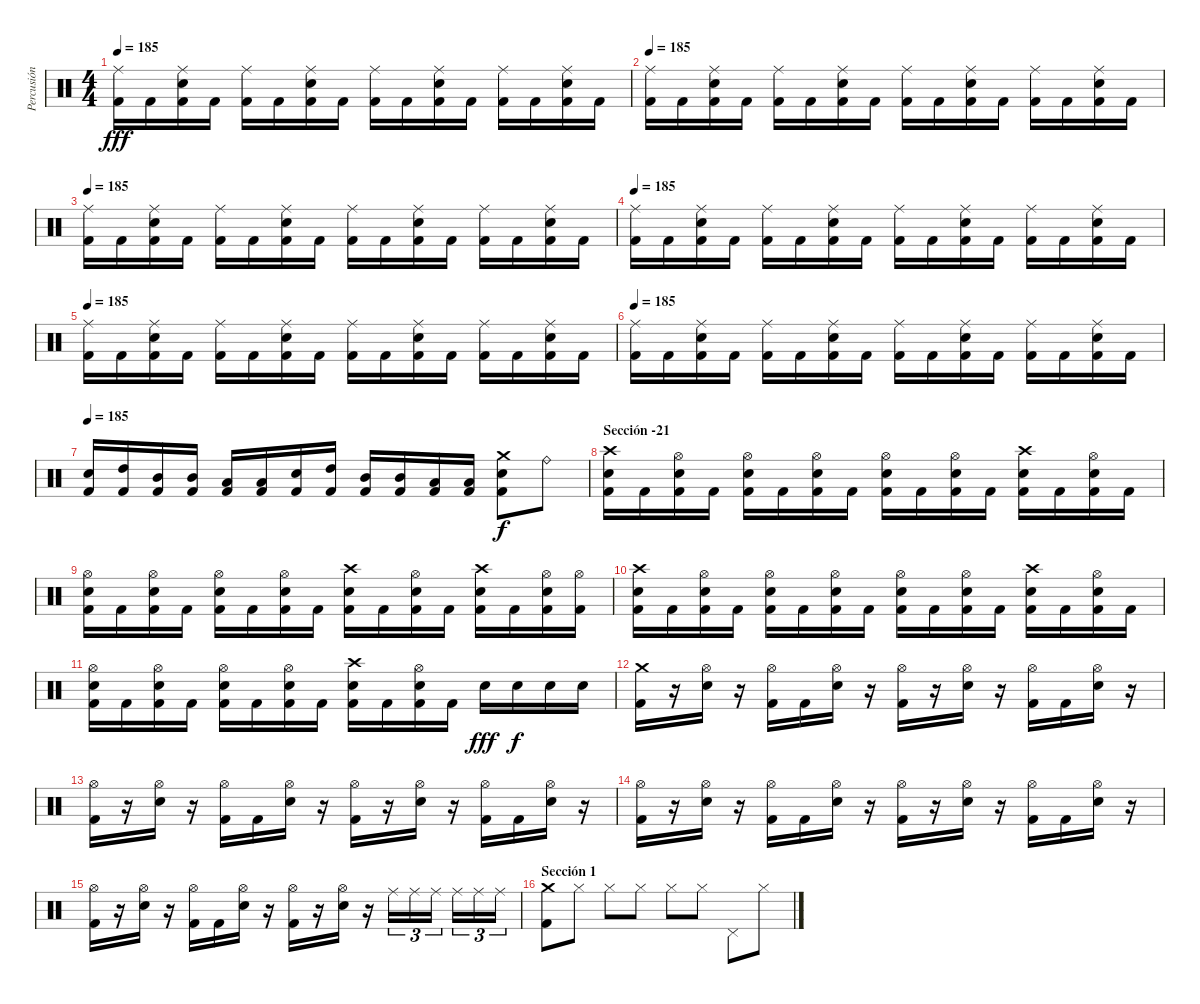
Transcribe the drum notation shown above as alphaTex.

\track ("Percusión" "Percusión") {instrument percussion}
\staff {score}
\articulation defaults
\ts (4 4)
\tempo 185
\clef neutral
\ks c
("Ride (middle)" "Kick (hit) 2").16{dy fff} "Kick (hit) 2".16 ("Ride (middle)" "Snare (hit) 2" "Kick (hit) 2").16 "Kick (hit) 2".16 ("Ride (middle)" "Kick (hit) 2").16 "Kick (hit) 2".16 ("Ride (middle)" "Snare (hit) 2" "Kick (hit) 2").16 "Kick (hit) 2".16 ("Ride (middle)" "Kick (hit) 2").16 "Kick (hit) 2".16 ("Ride (middle)" "Snare (hit) 2" "Kick (hit) 2").16 "Kick (hit) 2".16 ("Ride (middle)" "Kick (hit) 2").16 "Kick (hit) 2".16 ("Ride (middle)" "Snare (hit) 2" "Kick (hit) 2").16 "Kick (hit) 2".16 |
\tempo 185
("Ride (middle)" "Kick (hit) 2").16 "Kick (hit) 2".16 ("Ride (middle)" "Snare (hit) 2" "Kick (hit) 2").16 "Kick (hit) 2".16 ("Ride (middle)" "Kick (hit) 2").16 "Kick (hit) 2".16 ("Ride (middle)" "Snare (hit) 2" "Kick (hit) 2").16 "Kick (hit) 2".16 ("Ride (middle)" "Kick (hit) 2").16 "Kick (hit) 2".16 ("Ride (middle)" "Snare (hit) 2" "Kick (hit) 2").16 "Kick (hit) 2".16 ("Ride (middle)" "Kick (hit) 2").16 "Kick (hit) 2".16 ("Ride (middle)" "Snare (hit) 2" "Kick (hit) 2").16 "Kick (hit) 2".16 |
\tempo 185
("Ride (middle)" "Kick (hit) 2").16 "Kick (hit) 2".16 ("Ride (middle)" "Snare (hit) 2" "Kick (hit) 2").16 "Kick (hit) 2".16 ("Ride (middle)" "Kick (hit) 2").16 "Kick (hit) 2".16 ("Ride (middle)" "Snare (hit) 2" "Kick (hit) 2").16 "Kick (hit) 2".16 ("Ride (middle)" "Kick (hit) 2").16 "Kick (hit) 2".16 ("Ride (middle)" "Snare (hit) 2" "Kick (hit) 2").16 "Kick (hit) 2".16 ("Ride (middle)" "Kick (hit) 2").16 "Kick (hit) 2".16 ("Ride (middle)" "Snare (hit) 2" "Kick (hit) 2").16 "Kick (hit) 2".16 |
\tempo 185
("Ride (middle)" "Kick (hit) 2").16 "Kick (hit) 2".16 ("Ride (middle)" "Snare (hit) 2" "Kick (hit) 2").16 "Kick (hit) 2".16 ("Ride (middle)" "Kick (hit) 2").16 "Kick (hit) 2".16 ("Ride (middle)" "Snare (hit) 2" "Kick (hit) 2").16 "Kick (hit) 2".16 ("Ride (middle)" "Kick (hit) 2").16 "Kick (hit) 2".16 ("Ride (middle)" "Snare (hit) 2" "Kick (hit) 2").16 "Kick (hit) 2".16 ("Ride (middle)" "Kick (hit) 2").16 "Kick (hit) 2".16 ("Ride (middle)" "Snare (hit) 2" "Kick (hit) 2").16 "Kick (hit) 2".16 |
\tempo 185
("Ride (middle)" "Kick (hit) 2").16 "Kick (hit) 2".16 ("Ride (middle)" "Snare (hit) 2" "Kick (hit) 2").16 "Kick (hit) 2".16 ("Ride (middle)" "Kick (hit) 2").16 "Kick (hit) 2".16 ("Ride (middle)" "Snare (hit) 2" "Kick (hit) 2").16 "Kick (hit) 2".16 ("Ride (middle)" "Kick (hit) 2").16 "Kick (hit) 2".16 ("Ride (middle)" "Snare (hit) 2" "Kick (hit) 2").16 "Kick (hit) 2".16 ("Ride (middle)" "Kick (hit) 2").16 "Kick (hit) 2".16 ("Ride (middle)" "Snare (hit) 2" "Kick (hit) 2").16 "Kick (hit) 2".16 |
\tempo 185
("Ride (middle)" "Kick (hit) 2").16 "Kick (hit) 2".16 ("Ride (middle)" "Snare (hit) 2" "Kick (hit) 2").16 "Kick (hit) 2".16 ("Ride (middle)" "Kick (hit) 2").16 "Kick (hit) 2".16 ("Ride (middle)" "Snare (hit) 2" "Kick (hit) 2").16 "Kick (hit) 2".16 ("Ride (middle)" "Kick (hit) 2").16 "Kick (hit) 2".16 ("Ride (middle)" "Snare (hit) 2" "Kick (hit) 2").16 "Kick (hit) 2".16 ("Ride (middle)" "Kick (hit) 2").16 "Kick (hit) 2".16 ("Ride (middle)" "Snare (hit) 2" "Kick (hit) 2").16 "Kick (hit) 2".16 |
\tempo 185
("Snare (hit) 2" "Kick (hit) 2").16 ("High Tom (hit)" "Kick (hit) 2").16 ("Mid Tom (hit)" "Kick (hit) 2").16 ("Mid Tom (hit)" "Kick (hit) 2").16 ("Low Tom (hit)" "Kick (hit) 2").16 ("Low Tom (hit)" "Kick (hit) 2").16 ("Snare (hit) 2" "Kick (hit) 2").16 ("High Tom (hit)" "Kick (hit) 2").16 ("Mid Tom (hit)" "Kick (hit) 2").16 ("Mid Tom (hit)" "Kick (hit) 2").16 ("Low Tom (hit)" "Kick (hit) 2").16 ("Low Tom (hit)" "Kick (hit) 2").16 ("Crash medium (hit)" "Snare (hit) 2" "Kick (hit) 2").8{dy f} "Ride (bell)".8 |
\section ("" "Sección -21")
("Crash high (hit)" "Snare (hit) 2" "Kick (hit) 2").16 "Kick (hit) 2".16 ("Hi-Hat (open)" "Snare (hit) 2" "Kick (hit) 2").16 "Kick (hit) 2".16 ("Hi-Hat (open)" "Snare (hit) 2" "Kick (hit) 2").16 "Kick (hit) 2".16 ("Hi-Hat (open)" "Snare (hit) 2" "Kick (hit) 2").16 "Kick (hit) 2".16 ("Hi-Hat (open)" "Snare (hit) 2" "Kick (hit) 2").16 "Kick (hit) 2".16 ("Hi-Hat (open)" "Snare (hit) 2" "Kick (hit) 2").16 "Kick (hit) 2".16 ("Crash high (hit)" "Snare (hit) 2" "Kick (hit) 2").16 "Kick (hit) 2".16 ("Hi-Hat (open)" "Snare (hit) 2" "Kick (hit) 2").16 "Kick (hit) 2".16 |
("Hi-Hat (open)" "Snare (hit) 2" "Kick (hit) 2").16 "Kick (hit) 2".16 ("Hi-Hat (open)" "Snare (hit) 2" "Kick (hit) 2").16 "Kick (hit) 2".16 ("Hi-Hat (open)" "Snare (hit) 2" "Kick (hit) 2").16 "Kick (hit) 2".16 ("Hi-Hat (open)" "Snare (hit) 2" "Kick (hit) 2").16 "Kick (hit) 2".16 ("Crash high (hit)" "Snare (hit) 2" "Kick (hit) 2").16 "Kick (hit) 2".16 ("Hi-Hat (open)" "Snare (hit) 2" "Kick (hit) 2").16 "Kick (hit) 2".16 ("Crash high (hit)" "Snare (hit) 2" "Kick (hit) 2").16 "Kick (hit) 2".16 ("Hi-Hat (open)" "Snare (hit) 2" "Kick (hit) 2").16 ("Hi-Hat (open)" "Kick (hit) 2").16 |
("Crash high (hit)" "Snare (hit) 2" "Kick (hit) 2").16 "Kick (hit) 2".16 ("Hi-Hat (open)" "Snare (hit) 2" "Kick (hit) 2").16 "Kick (hit) 2".16 ("Hi-Hat (open)" "Snare (hit) 2" "Kick (hit) 2").16 "Kick (hit) 2".16 ("Hi-Hat (open)" "Snare (hit) 2" "Kick (hit) 2").16 "Kick (hit) 2".16 ("Hi-Hat (open)" "Snare (hit) 2" "Kick (hit) 2").16 "Kick (hit) 2".16 ("Hi-Hat (open)" "Snare (hit) 2" "Kick (hit) 2").16 "Kick (hit) 2".16 ("Crash high (hit)" "Snare (hit) 2" "Kick (hit) 2").16 "Kick (hit) 2".16 ("Hi-Hat (open)" "Snare (hit) 2" "Kick (hit) 2").16 "Kick (hit) 2".16 |
("Hi-Hat (open)" "Snare (hit) 2" "Kick (hit) 2").16 "Kick (hit) 2".16 ("Hi-Hat (open)" "Snare (hit) 2" "Kick (hit) 2").16 "Kick (hit) 2".16 ("Hi-Hat (open)" "Snare (hit) 2" "Kick (hit) 2").16 "Kick (hit) 2".16 ("Hi-Hat (open)" "Snare (hit) 2" "Kick (hit) 2").16 "Kick (hit) 2".16 ("Crash high (hit)" "Snare (hit) 2" "Kick (hit) 2").16 "Kick (hit) 2".16 ("Hi-Hat (open)" "Snare (hit) 2" "Kick (hit) 2").16 "Kick (hit) 2".16 "Snare (hit) 2".16{dy fff} "Snare (hit) 2".16{dy f} "Snare (hit) 2".16 "Snare (hit) 2".16 |
("Crash medium (hit)" "Kick (hit) 2").16 r.16 ("Hi-Hat (open)" "Snare (hit) 2").16 r.16 ("Hi-Hat (open)" "Kick (hit) 2").16 "Kick (hit) 2".16 ("Hi-Hat (open)" "Snare (hit) 2").16 r.16 ("Hi-Hat (open)" "Kick (hit) 2").16 r.16 ("Hi-Hat (open)" "Snare (hit) 2").16 r.16 ("Hi-Hat (open)" "Kick (hit) 2").16 "Kick (hit) 2".16 ("Hi-Hat (open)" "Snare (hit) 2").16 r.16 |
("Hi-Hat (open)" "Kick (hit) 2").16 r.16 ("Hi-Hat (open)" "Snare (hit) 2").16 r.16 ("Hi-Hat (open)" "Kick (hit) 2").16 "Kick (hit) 2".16 ("Hi-Hat (open)" "Snare (hit) 2").16 r.16 ("Hi-Hat (open)" "Kick (hit) 2").16 r.16 ("Hi-Hat (open)" "Snare (hit) 2").16 r.16 ("Hi-Hat (open)" "Kick (hit) 2").16 "Kick (hit) 2".16 ("Hi-Hat (open)" "Snare (hit) 2").16 r.16 |
("Hi-Hat (open)" "Kick (hit) 2").16 r.16 ("Hi-Hat (open)" "Snare (hit) 2").16 r.16 ("Hi-Hat (open)" "Kick (hit) 2").16 "Kick (hit) 2".16 ("Hi-Hat (open)" "Snare (hit) 2").16 r.16 ("Hi-Hat (open)" "Kick (hit) 2").16 r.16 ("Hi-Hat (open)" "Snare (hit) 2").16 r.16 ("Hi-Hat (open)" "Kick (hit) 2").16 "Kick (hit) 2".16 ("Hi-Hat (open)" "Snare (hit) 2").16 r.16 |
("Hi-Hat (open)" "Kick (hit) 2").16 r.16 ("Hi-Hat (open)" "Snare (hit) 2").16 r.16 ("Hi-Hat (open)" "Kick (hit) 2").16 "Kick (hit) 2".16 ("Hi-Hat (open)" "Snare (hit) 2").16 r.16 ("Hi-Hat (open)" "Kick (hit) 2").16 r.16 ("Hi-Hat (open)" "Snare (hit) 2").16 r.16 "Ride (middle)".16{tu (3 2)} "Ride (middle)".16{tu (3 2)} "Ride (middle)".16{tu (3 2)} "Ride (middle)".16{tu (3 2)} "Ride (middle)".16{tu (3 2)} "Ride (middle)".16{tu (3 2)} |
\section ("" "Sección 1")
("Crash medium (hit)" "Kick (hit) 2").8 "Hi-Hat (closed)".8 "Hi-Hat (closed)".8 "Hi-Hat (closed)".8 "Hi-Hat (closed)".8 "Hi-Hat (closed)".8 "Pedal Hi-Hat (hit)".8 "Hi-Hat (closed)".8
